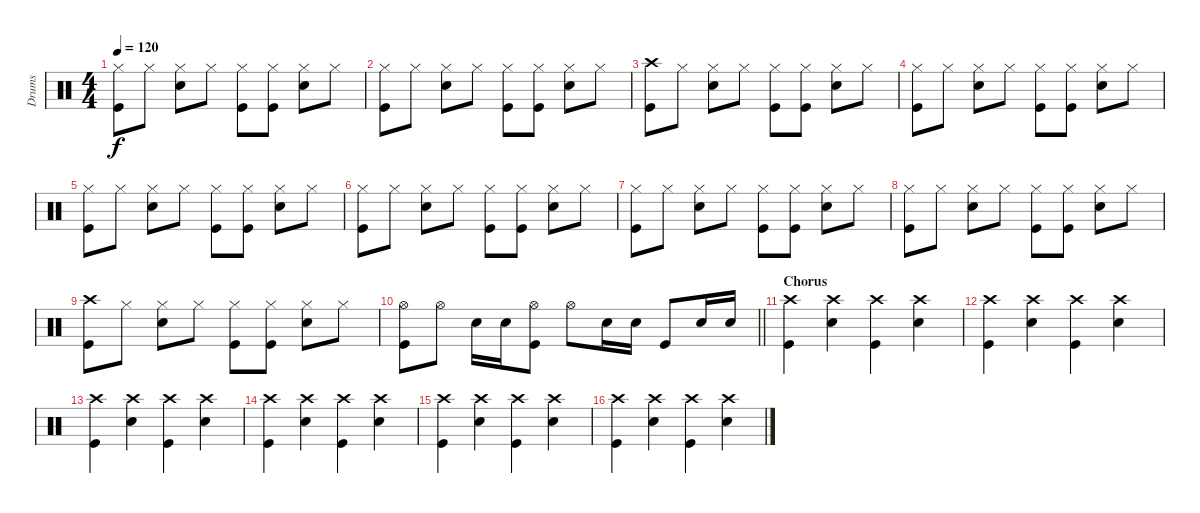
\track ("Drums" "Drums") {instrument percussion}
\staff {score}
\articulation defaults
\ts (4 4)
\tempo 120
\clef neutral
\ks c
("Hi-Hat (closed)" "Kick (hit)").8{dy f} "Hi-Hat (closed)".8 ("Hi-Hat (closed)" "Snare (hit) 2").8 "Hi-Hat (closed)".8 ("Hi-Hat (closed)" "Kick (hit)").8 ("Hi-Hat (closed)" "Kick (hit)").8 ("Hi-Hat (closed)" "Snare (hit) 2").8 "Hi-Hat (closed)".8 |
("Hi-Hat (closed)" "Kick (hit)").8 "Hi-Hat (closed)".8 ("Hi-Hat (closed)" "Snare (hit) 2").8 "Hi-Hat (closed)".8 ("Hi-Hat (closed)" "Kick (hit)").8 ("Hi-Hat (closed)" "Kick (hit)").8 ("Hi-Hat (closed)" "Snare (hit) 2").8 "Hi-Hat (closed)".8 |
("Crash high (hit)" "Kick (hit)").8 "Hi-Hat (closed)".8 ("Hi-Hat (closed)" "Snare (hit) 2").8 "Hi-Hat (closed)".8 ("Hi-Hat (closed)" "Kick (hit)").8 ("Hi-Hat (closed)" "Kick (hit)").8 ("Hi-Hat (closed)" "Snare (hit) 2").8 "Hi-Hat (closed)".8 |
("Hi-Hat (closed)" "Kick (hit)").8 "Hi-Hat (closed)".8 ("Hi-Hat (closed)" "Snare (hit) 2").8 "Hi-Hat (closed)".8 ("Hi-Hat (closed)" "Kick (hit)").8 ("Hi-Hat (closed)" "Kick (hit)").8 ("Hi-Hat (closed)" "Snare (hit) 2").8 "Hi-Hat (closed)".8 |
("Hi-Hat (closed)" "Kick (hit)").8 "Hi-Hat (closed)".8 ("Hi-Hat (closed)" "Snare (hit) 2").8 "Hi-Hat (closed)".8 ("Hi-Hat (closed)" "Kick (hit)").8 ("Hi-Hat (closed)" "Kick (hit)").8 ("Hi-Hat (closed)" "Snare (hit) 2").8 "Hi-Hat (closed)".8 |
("Hi-Hat (closed)" "Kick (hit)").8 "Hi-Hat (closed)".8 ("Hi-Hat (closed)" "Snare (hit) 2").8 "Hi-Hat (closed)".8 ("Hi-Hat (closed)" "Kick (hit)").8 ("Hi-Hat (closed)" "Kick (hit)").8 ("Hi-Hat (closed)" "Snare (hit) 2").8 "Hi-Hat (closed)".8 |
("Hi-Hat (closed)" "Kick (hit)").8 "Hi-Hat (closed)".8 ("Hi-Hat (closed)" "Snare (hit) 2").8 "Hi-Hat (closed)".8 ("Hi-Hat (closed)" "Kick (hit)").8 ("Hi-Hat (closed)" "Kick (hit)").8 ("Hi-Hat (closed)" "Snare (hit) 2").8 "Hi-Hat (closed)".8 |
("Hi-Hat (closed)" "Kick (hit)").8 "Hi-Hat (closed)".8 ("Hi-Hat (closed)" "Snare (hit) 2").8 "Hi-Hat (closed)".8 ("Hi-Hat (closed)" "Kick (hit)").8 ("Hi-Hat (closed)" "Kick (hit)").8 ("Hi-Hat (closed)" "Snare (hit) 2").8 "Hi-Hat (closed)".8 |
("Crash high (hit)" "Kick (hit)").8 "Hi-Hat (closed)".8 ("Hi-Hat (closed)" "Snare (hit) 2").8 "Hi-Hat (closed)".8 ("Hi-Hat (closed)" "Kick (hit)").8 ("Hi-Hat (closed)" "Kick (hit)").8 ("Hi-Hat (closed)" "Snare (hit) 2").8 "Hi-Hat (closed)".8 |
\barLineRight lightlight
("Hi-Hat (open)" "Kick (hit)").8 "Hi-Hat (open)".8 "Snare (hit) 2".16 "Snare (hit) 2".16 ("Hi-Hat (open)" "Kick (hit)").8 "Hi-Hat (open)".8 "Snare (hit) 2".16 "Snare (hit) 2".16 "Kick (hit)".8 "Snare (hit) 2".16 "Snare (hit) 2".16 |
\section ("" "Chorus")
("Crash high (hit)" "Kick (hit)").4 ("Crash high (hit)" "Snare (hit) 2").4 ("Crash high (hit)" "Kick (hit)").4 ("Crash high (hit)" "Snare (hit) 2").4 |
("Crash high (hit)" "Kick (hit)").4 ("Crash high (hit)" "Snare (hit) 2").4 ("Crash high (hit)" "Kick (hit)").4 ("Crash high (hit)" "Snare (hit) 2").4 |
("Crash high (hit)" "Kick (hit)").4 ("Crash high (hit)" "Snare (hit) 2").4 ("Crash high (hit)" "Kick (hit)").4 ("Crash high (hit)" "Snare (hit) 2").4 |
("Crash high (hit)" "Kick (hit)").4 ("Crash high (hit)" "Snare (hit) 2").4 ("Crash high (hit)" "Kick (hit)").4 ("Crash high (hit)" "Snare (hit) 2").4 |
("Crash high (hit)" "Kick (hit)").4 ("Crash high (hit)" "Snare (hit) 2").4 ("Crash high (hit)" "Kick (hit)").4 ("Crash high (hit)" "Snare (hit) 2").4 |
("Crash high (hit)" "Kick (hit)").4 ("Crash high (hit)" "Snare (hit) 2").4 ("Crash high (hit)" "Kick (hit)").4 ("Crash high (hit)" "Snare (hit) 2").4
